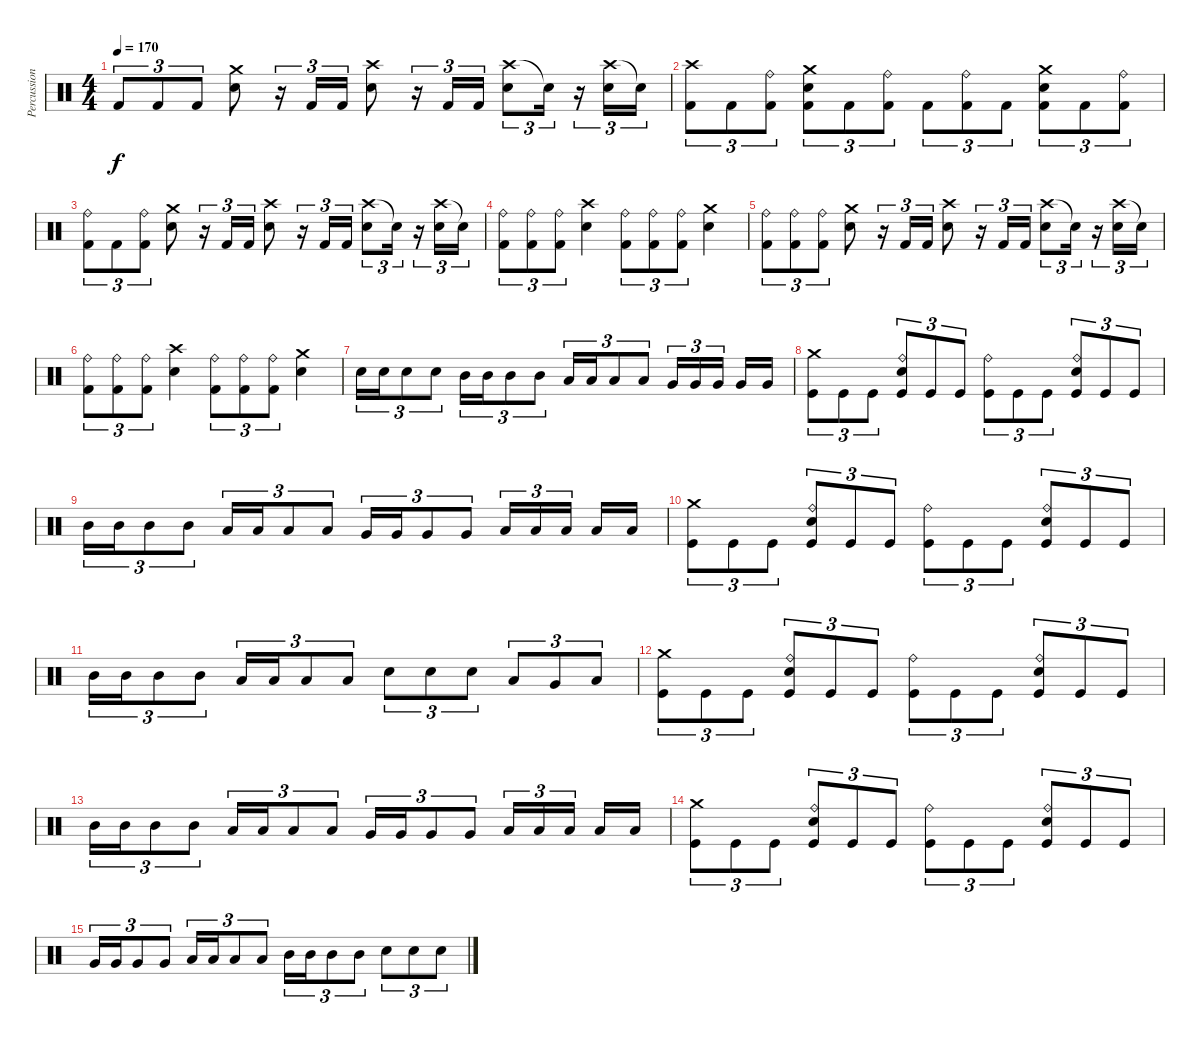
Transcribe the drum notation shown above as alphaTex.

\track ("Percussions" "Percussion") {instrument percussion}
\staff {score}
\articulation defaults
\ts (4 4)
\tempo 170
\clef neutral
\ks c "Kick (hit) 2".8{tu (3 2) dy f} "Kick (hit) 2".8{tu (3 2)} "Kick (hit) 2".8{tu (3 2)}
("Crash medium (hit)" "Electric Snare (hit)").8 r.16{tu (3 2)} "Kick (hit) 2".16{tu (3 2)} "Kick (hit) 2".16{tu (3 2)} ("Crash high (hit)" "Electric Snare (hit)").8 r.16{tu (3 2)} "Kick (hit) 2".16{tu (3 2)} "Kick (hit) 2".16{tu (3 2)} ("Crash high (hit)" "Electric Snare (hit)").8{tu (3 2)} "Electric Snare (hit)"{t}.16{tu (3 2)} r.16{tu (3 2)} ("Crash high (hit)" "Electric Snare (hit)").16{tu (3 2)} "Snare (hit)"{t}.16{tu (3 2)} |
("Crash high (hit)" "Kick (hit) 2").8{tu (3 2)} "Kick (hit) 2".8{tu (3 2)} ("Ride (bell)" "Kick (hit) 2").8{tu (3 2)} ("Crash medium (hit)" "Electric Snare (hit)" "Kick (hit) 2").8{tu (3 2)} "Kick (hit) 2".8{tu (3 2)} ("Ride (bell)" "Kick (hit) 2").8{tu (3 2)} "Kick (hit) 2".8{tu (3 2)} ("Ride (bell)" "Kick (hit) 2").8{tu (3 2)} "Kick (hit) 2".8{tu (3 2)} ("Crash medium (hit)" "Electric Snare (hit)" "Kick (hit) 2").8{tu (3 2)} "Kick (hit) 2".8{tu (3 2)} ("Ride (bell)" "Kick (hit) 2").8{tu (3 2)} |
("Ride (bell)" "Kick (hit) 2").8{tu (3 2)} "Kick (hit) 2".8{tu (3 2)} ("Ride (bell)" "Kick (hit) 2").8{tu (3 2)} ("Crash medium (hit)" "Electric Snare (hit)").8 r.16{tu (3 2)} "Kick (hit) 2".16{tu (3 2)} "Kick (hit) 2".16{tu (3 2)} ("Crash high (hit)" "Electric Snare (hit)").8 r.16{tu (3 2)} "Kick (hit) 2".16{tu (3 2)} "Kick (hit) 2".16{tu (3 2)} ("Crash high (hit)" "Electric Snare (hit)").8{tu (3 2)} "Electric Snare (hit)"{t}.16{tu (3 2)} r.16{tu (3 2)} ("Crash high (hit)" "Electric Snare (hit)").16{tu (3 2)} "Snare (hit)"{t}.16{tu (3 2)} |
("Ride (bell)" "Kick (hit) 2").8{tu (3 2)} ("Ride (bell)" "Kick (hit) 2").8{tu (3 2)} ("Ride (bell)" "Kick (hit) 2").8{tu (3 2)} ("Crash high (hit)" "Electric Snare (hit)").4 ("Ride (bell)" "Kick (hit) 2").8{tu (3 2)} ("Ride (bell)" "Kick (hit) 2").8{tu (3 2)} ("Ride (bell)" "Kick (hit) 2").8{tu (3 2)} ("Crash medium (hit)" "Electric Snare (hit)").4 |
("Ride (bell)" "Kick (hit) 2").8{tu (3 2)} ("Ride (bell)" "Kick (hit) 2").8{tu (3 2)} ("Ride (bell)" "Kick (hit) 2").8{tu (3 2)} ("Crash medium (hit)" "Electric Snare (hit)").8 r.16{tu (3 2)} "Kick (hit) 2".16{tu (3 2)} "Kick (hit) 2".16{tu (3 2)} ("Crash high (hit)" "Electric Snare (hit)").8 r.16{tu (3 2)} "Kick (hit) 2".16{tu (3 2)} "Kick (hit) 2".16{tu (3 2)} ("Crash high (hit)" "Electric Snare (hit)").8{tu (3 2)} "Electric Snare (hit)"{t}.16{tu (3 2)} r.16{tu (3 2)} ("Crash high (hit)" "Electric Snare (hit)").16{tu (3 2)} "Snare (hit)"{t}.16{tu (3 2)} |
("Ride (bell)" "Kick (hit) 2").8{tu (3 2)} ("Ride (bell)" "Kick (hit) 2").8{tu (3 2)} ("Ride (bell)" "Kick (hit) 2").8{tu (3 2)} ("Crash high (hit)" "Electric Snare (hit)").4 ("Ride (bell)" "Kick (hit) 2").8{tu (3 2)} ("Ride (bell)" "Kick (hit) 2").8{tu (3 2)} ("Ride (bell)" "Kick (hit) 2").8{tu (3 2)} ("Crash medium (hit)" "Electric Snare (hit)").4 |
"Electric Snare (hit)".16{tu (3 2)} "Electric Snare (hit)".16{tu (3 2)} "Electric Snare (hit)".8{tu (3 2)} "Electric Snare (hit)".8{tu (3 2)} "Mid Tom (hit)".16{tu (3 2)} "Mid Tom (hit)".16{tu (3 2)} "Mid Tom (hit)".8{tu (3 2)} "Mid Tom (hit)".8{tu (3 2)} "Low Tom (hit)".16{tu (3 2)} "Low Tom (hit)".16{tu (3 2)} "Low Tom (hit)".8{tu (3 2)} "Low Tom (hit)".8{tu (3 2)} "Very Low Tom (hit)".16{tu (3 2)} "Very Low Tom (hit)".16{tu (3 2)} "Very Low Tom (hit)".16{tu (3 2)} "Very Low Tom (hit)".16 "Very Low Tom (hit)".16 |
("Crash medium (hit)" "Kick (hit)").8{tu (3 2)} "Kick (hit)".8{tu (3 2)} "Kick (hit)".8{tu (3 2)} ("Ride (bell)" "Electric Snare (hit)" "Kick (hit)").8{tu (3 2)} "Kick (hit)".8{tu (3 2)} "Kick (hit)".8{tu (3 2)} ("Ride (bell)" "Kick (hit)").8{tu (3 2)} "Kick (hit)".8{tu (3 2)} "Kick (hit)".8{tu (3 2)} ("Ride (bell)" "Electric Snare (hit)" "Kick (hit)").8{tu (3 2)} "Kick (hit)".8{tu (3 2)} "Kick (hit)".8{tu (3 2)} |
"Mid Tom (hit)".16{tu (3 2)} "Mid Tom (hit)".16{tu (3 2)} "Mid Tom (hit)".8{tu (3 2)} "Mid Tom (hit)".8{tu (3 2)} "Low Tom (hit)".16{tu (3 2)} "Low Tom (hit)".16{tu (3 2)} "Low Tom (hit)".8{tu (3 2)} "Low Tom (hit)".8{tu (3 2)} "Very Low Tom (hit)".16{tu (3 2)} "Very Low Tom (hit)".16{tu (3 2)} "Very Low Tom (hit)".8{tu (3 2)} "Very Low Tom (hit)".8{tu (3 2)} "Low Floor Tom (hit)".16{tu (3 2)} "Low Floor Tom (hit)".16{tu (3 2)} "Low Floor Tom (hit)".16{tu (3 2)} "Low Floor Tom (hit)".16 "Low Floor Tom (hit)".16 |
("Crash medium (hit)" "Kick (hit)").8{tu (3 2)} "Kick (hit)".8{tu (3 2)} "Kick (hit)".8{tu (3 2)} ("Ride (bell)" "Electric Snare (hit)" "Kick (hit)").8{tu (3 2)} "Kick (hit)".8{tu (3 2)} "Kick (hit)".8{tu (3 2)} ("Ride (bell)" "Kick (hit)").8{tu (3 2)} "Kick (hit)".8{tu (3 2)} "Kick (hit)".8{tu (3 2)} ("Ride (bell)" "Electric Snare (hit)" "Kick (hit)").8{tu (3 2)} "Kick (hit)".8{tu (3 2)} "Kick (hit)".8{tu (3 2)} |
"Mid Tom (hit)".16{tu (3 2)} "Mid Tom (hit)".16{tu (3 2)} "Mid Tom (hit)".8{tu (3 2)} "Mid Tom (hit)".8{tu (3 2)} "Low Tom (hit)".16{tu (3 2)} "Low Tom (hit)".16{tu (3 2)} "Low Tom (hit)".8{tu (3 2)} "Low Tom (hit)".8{tu (3 2)} "Electric Snare (hit)".8{tu (3 2)} "Electric Snare (hit)".8{tu (3 2)} "Electric Snare (hit)".8{tu (3 2)} "Low Tom (hit)".8{tu (3 2)} "Very Low Tom (hit)".8{tu (3 2)} "Low Floor Tom (hit)".8{tu (3 2)} |
("Crash medium (hit)" "Kick (hit)").8{tu (3 2)} "Kick (hit)".8{tu (3 2)} "Kick (hit)".8{tu (3 2)} ("Ride (bell)" "Electric Snare (hit)" "Kick (hit)").8{tu (3 2)} "Kick (hit)".8{tu (3 2)} "Kick (hit)".8{tu (3 2)} ("Ride (bell)" "Kick (hit)").8{tu (3 2)} "Kick (hit)".8{tu (3 2)} "Kick (hit)".8{tu (3 2)} ("Ride (bell)" "Electric Snare (hit)" "Kick (hit)").8{tu (3 2)} "Kick (hit)".8{tu (3 2)} "Kick (hit)".8{tu (3 2)} |
"Mid Tom (hit)".16{tu (3 2)} "Mid Tom (hit)".16{tu (3 2)} "Mid Tom (hit)".8{tu (3 2)} "Mid Tom (hit)".8{tu (3 2)} "Low Tom (hit)".16{tu (3 2)} "Low Tom (hit)".16{tu (3 2)} "Low Tom (hit)".8{tu (3 2)} "Low Tom (hit)".8{tu (3 2)} "Very Low Tom (hit)".16{tu (3 2)} "Very Low Tom (hit)".16{tu (3 2)} "Very Low Tom (hit)".8{tu (3 2)} "Very Low Tom (hit)".8{tu (3 2)} "Low Floor Tom (hit)".16{tu (3 2)} "Low Floor Tom (hit)".16{tu (3 2)} "Low Floor Tom (hit)".16{tu (3 2)} "Low Floor Tom (hit)".16 "Low Floor Tom (hit)".16 |
("Crash medium (hit)" "Kick (hit)").8{tu (3 2)} "Kick (hit)".8{tu (3 2)} "Kick (hit)".8{tu (3 2)} ("Ride (bell)" "Electric Snare (hit)" "Kick (hit)").8{tu (3 2)} "Kick (hit)".8{tu (3 2)} "Kick (hit)".8{tu (3 2)} ("Ride (bell)" "Kick (hit)").8{tu (3 2)} "Kick (hit)".8{tu (3 2)} "Kick (hit)".8{tu (3 2)} ("Ride (bell)" "Electric Snare (hit)" "Kick (hit)").8{tu (3 2)} "Kick (hit)".8{tu (3 2)} "Kick (hit)".8{tu (3 2)} |
"Very Low Tom (hit)".16{tu (3 2)} "Very Low Tom (hit)".16{tu (3 2)} "Very Low Tom (hit)".8{tu (3 2)} "Very Low Tom (hit)".8{tu (3 2)} "Low Tom (hit)".16{tu (3 2)} "Low Tom (hit)".16{tu (3 2)} "Low Tom (hit)".8{tu (3 2)} "Low Tom (hit)".8{tu (3 2)} "Mid Tom (hit)".16{tu (3 2)} "Mid Tom (hit)".16{tu (3 2)} "Mid Tom (hit)".8{tu (3 2)} "Mid Tom (hit)".8{tu (3 2)} "Electric Snare (hit)".8{tu (3 2)} "Electric Snare (hit)".8{tu (3 2)} "Electric Snare (hit)".8{tu (3 2)}
